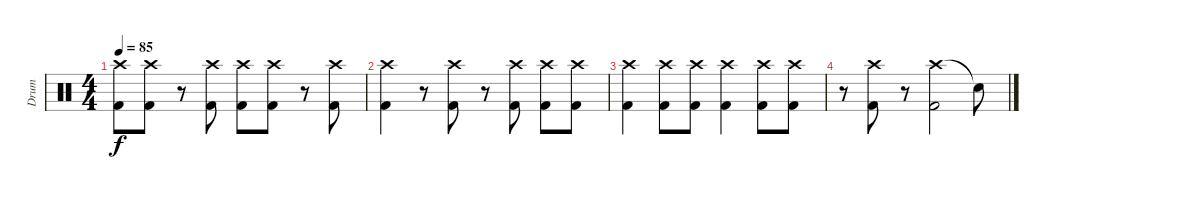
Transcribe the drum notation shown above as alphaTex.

\track ("Drum" "Drum") {instrument percussion}
\staff {score}
\articulation defaults
\ts (4 4)
\tempo 85
\clef neutral
\ks c
("Crash high (hit)" "Kick (hit) 2").8{dy f} ("Crash high (hit)" "Kick (hit) 2").8 r.8 ("Crash high (hit)" "Kick (hit) 2").8 ("Crash high (hit)" "Kick (hit) 2").8 ("Crash high (hit)" "Kick (hit) 2").8 r.8 ("Crash high (hit)" "Kick (hit) 2").8 |
("Crash high (hit)" "Kick (hit) 2").4 r.8 ("Crash high (hit)" "Kick (hit) 2").8 r.8 ("Crash high (hit)" "Kick (hit) 2").8 ("Crash high (hit)" "Kick (hit) 2").8 ("Crash high (hit)" "Kick (hit) 2").8 |
("Crash high (hit)" "Kick (hit) 2").4 ("Crash high (hit)" "Kick (hit) 2").8 ("Crash high (hit)" "Kick (hit) 2").8 ("Crash high (hit)" "Kick (hit) 2").4 ("Crash high (hit)" "Kick (hit) 2").8 ("Crash high (hit)" "Kick (hit) 2").8 |
r.8 ("Crash high (hit)" "Kick (hit) 2").8 r.8 ("Crash high (hit)" "Kick (hit) 2").2 "Snare (hit)"{t}.8
